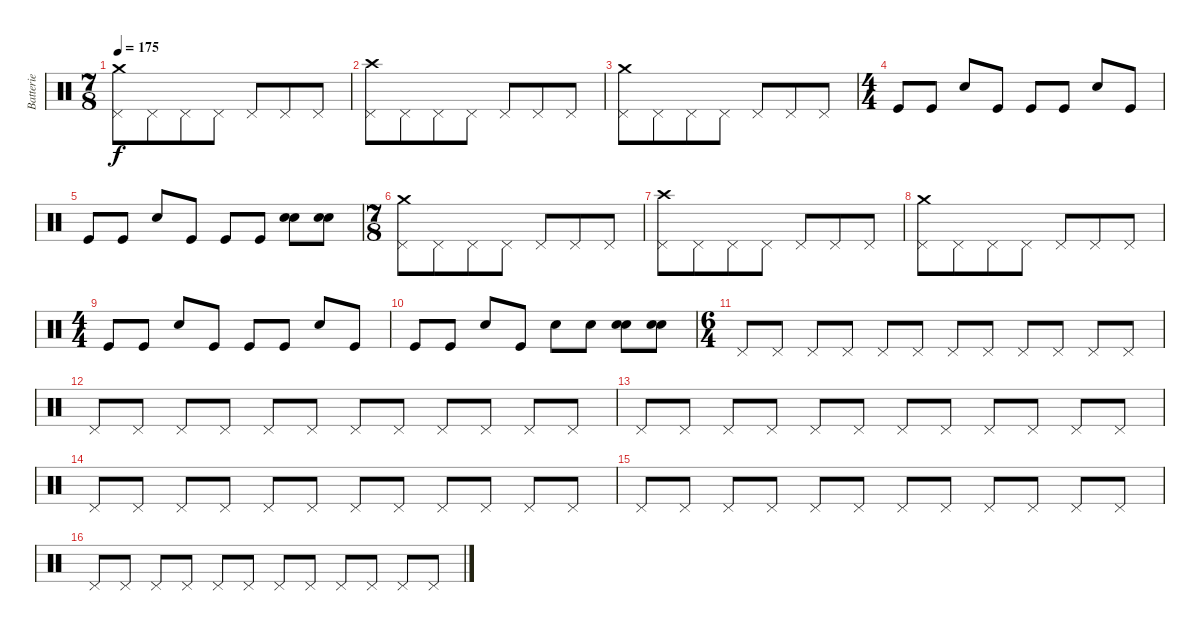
\track ("Batterie" "Batterie") {instrument percussion}
\staff {score}
\articulation defaults
\ts (7 8)
\tempo 175
\clef neutral
\ks c
("Pedal Hi-Hat (hit)" "Crash medium (hit)").8{dy f} "Pedal Hi-Hat (hit)".8 "Pedal Hi-Hat (hit)".8 "Pedal Hi-Hat (hit)".8 "Pedal Hi-Hat (hit)".8 "Pedal Hi-Hat (hit)".8 "Pedal Hi-Hat (hit)".8 |
("Pedal Hi-Hat (hit)" "Crash high (hit)").8 "Pedal Hi-Hat (hit)".8 "Pedal Hi-Hat (hit)".8 "Pedal Hi-Hat (hit)".8 "Pedal Hi-Hat (hit)".8 "Pedal Hi-Hat (hit)".8 "Pedal Hi-Hat (hit)".8 |
("Pedal Hi-Hat (hit)" "Crash medium (hit)").8 "Pedal Hi-Hat (hit)".8 "Pedal Hi-Hat (hit)".8 "Pedal Hi-Hat (hit)".8 "Pedal Hi-Hat (hit)".8 "Pedal Hi-Hat (hit)".8 "Pedal Hi-Hat (hit)".8 |
\ts (4 4)
"Kick (hit)".8 "Kick (hit)".8 "Snare (hit) 2".8 "Kick (hit)".8 "Kick (hit)".8 "Kick (hit)".8 "Snare (hit) 2".8 "Kick (hit)".8 |
"Kick (hit)".8 "Kick (hit)".8 "Snare (hit) 2".8 "Kick (hit)".8 "Kick (hit)".8 "Kick (hit)".8 ("Snare (hit) 2" "Electric Snare (hit)").8 ("Snare (hit) 2" "Electric Snare (hit)").8 |
\ts (7 8)
("Pedal Hi-Hat (hit)" "Crash medium (hit)").8 "Pedal Hi-Hat (hit)".8 "Pedal Hi-Hat (hit)".8 "Pedal Hi-Hat (hit)".8 "Pedal Hi-Hat (hit)".8 "Pedal Hi-Hat (hit)".8 "Pedal Hi-Hat (hit)".8 |
("Pedal Hi-Hat (hit)" "Crash high (hit)").8 "Pedal Hi-Hat (hit)".8 "Pedal Hi-Hat (hit)".8 "Pedal Hi-Hat (hit)".8 "Pedal Hi-Hat (hit)".8 "Pedal Hi-Hat (hit)".8 "Pedal Hi-Hat (hit)".8 |
("Pedal Hi-Hat (hit)" "Crash medium (hit)").8 "Pedal Hi-Hat (hit)".8 "Pedal Hi-Hat (hit)".8 "Pedal Hi-Hat (hit)".8 "Pedal Hi-Hat (hit)".8 "Pedal Hi-Hat (hit)".8 "Pedal Hi-Hat (hit)".8 |
\ts (4 4)
"Kick (hit)".8 "Kick (hit)".8 "Snare (hit) 2".8 "Kick (hit)".8 "Kick (hit)".8 "Kick (hit)".8 "Snare (hit) 2".8 "Kick (hit)".8 |
"Kick (hit)".8 "Kick (hit)".8 "Snare (hit) 2".8 "Kick (hit)".8 "Electric Snare (hit)".8 "Electric Snare (hit)".8 ("Snare (hit) 2" "Electric Snare (hit)").8 ("Snare (hit) 2" "Electric Snare (hit)").8 |
\ts (6 4)
"Pedal Hi-Hat (hit)".8 "Pedal Hi-Hat (hit)".8 "Pedal Hi-Hat (hit)".8 "Pedal Hi-Hat (hit)".8 "Pedal Hi-Hat (hit)".8 "Pedal Hi-Hat (hit)".8 "Pedal Hi-Hat (hit)".8 "Pedal Hi-Hat (hit)".8 "Pedal Hi-Hat (hit)".8 "Pedal Hi-Hat (hit)".8 "Pedal Hi-Hat (hit)".8 "Pedal Hi-Hat (hit)".8 |
"Pedal Hi-Hat (hit)".8 "Pedal Hi-Hat (hit)".8 "Pedal Hi-Hat (hit)".8 "Pedal Hi-Hat (hit)".8 "Pedal Hi-Hat (hit)".8 "Pedal Hi-Hat (hit)".8 "Pedal Hi-Hat (hit)".8 "Pedal Hi-Hat (hit)".8 "Pedal Hi-Hat (hit)".8 "Pedal Hi-Hat (hit)".8 "Pedal Hi-Hat (hit)".8 "Pedal Hi-Hat (hit)".8 |
"Pedal Hi-Hat (hit)".8 "Pedal Hi-Hat (hit)".8 "Pedal Hi-Hat (hit)".8 "Pedal Hi-Hat (hit)".8 "Pedal Hi-Hat (hit)".8 "Pedal Hi-Hat (hit)".8 "Pedal Hi-Hat (hit)".8 "Pedal Hi-Hat (hit)".8 "Pedal Hi-Hat (hit)".8 "Pedal Hi-Hat (hit)".8 "Pedal Hi-Hat (hit)".8 "Pedal Hi-Hat (hit)".8 |
"Pedal Hi-Hat (hit)".8 "Pedal Hi-Hat (hit)".8 "Pedal Hi-Hat (hit)".8 "Pedal Hi-Hat (hit)".8 "Pedal Hi-Hat (hit)".8 "Pedal Hi-Hat (hit)".8 "Pedal Hi-Hat (hit)".8 "Pedal Hi-Hat (hit)".8 "Pedal Hi-Hat (hit)".8 "Pedal Hi-Hat (hit)".8 "Pedal Hi-Hat (hit)".8 "Pedal Hi-Hat (hit)".8 |
"Pedal Hi-Hat (hit)".8 "Pedal Hi-Hat (hit)".8 "Pedal Hi-Hat (hit)".8 "Pedal Hi-Hat (hit)".8 "Pedal Hi-Hat (hit)".8 "Pedal Hi-Hat (hit)".8 "Pedal Hi-Hat (hit)".8 "Pedal Hi-Hat (hit)".8 "Pedal Hi-Hat (hit)".8 "Pedal Hi-Hat (hit)".8 "Pedal Hi-Hat (hit)".8 "Pedal Hi-Hat (hit)".8 |
"Pedal Hi-Hat (hit)".8 "Pedal Hi-Hat (hit)".8 "Pedal Hi-Hat (hit)".8 "Pedal Hi-Hat (hit)".8 "Pedal Hi-Hat (hit)".8 "Pedal Hi-Hat (hit)".8 "Pedal Hi-Hat (hit)".8 "Pedal Hi-Hat (hit)".8 "Pedal Hi-Hat (hit)".8 "Pedal Hi-Hat (hit)".8 "Pedal Hi-Hat (hit)".8 "Pedal Hi-Hat (hit)".8
